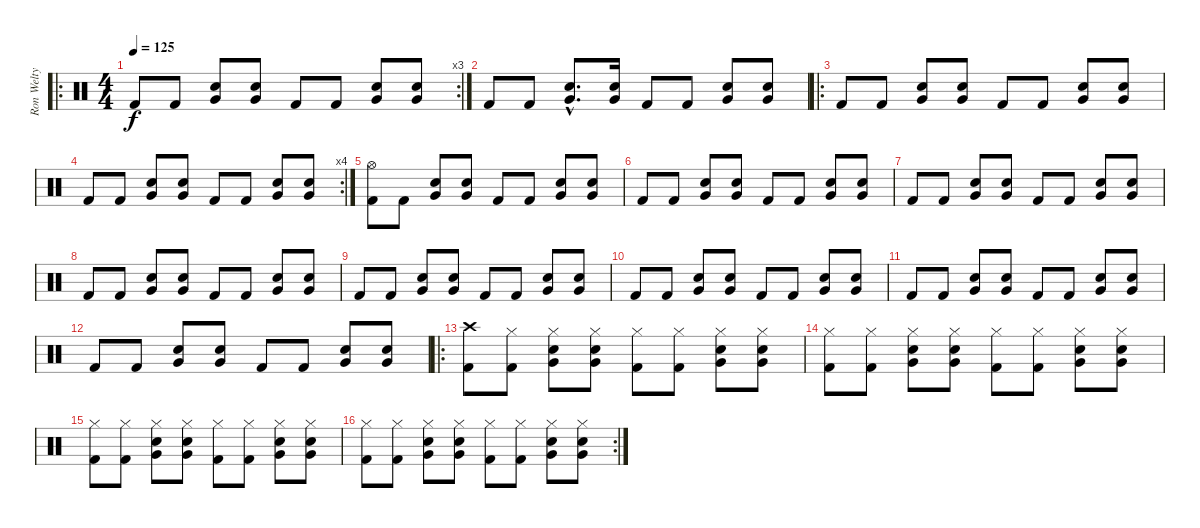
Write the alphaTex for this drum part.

\track ("Ron Welty" "Ron Welty") {instrument percussion}
\staff {score}
\articulation defaults
\ro
\rc 3
\ts (4 4)
\tempo 125
\clef neutral
\ks c "Kick (hit) 2".8{dy f} "Kick (hit) 2".8
("Snare (hit) 2" "Very Low Tom (hit)").8 ("Snare (hit) 2" "Very Low Tom (hit)").8 "Kick (hit) 2".8 "Kick (hit) 2".8 ("Snare (hit) 2" "Very Low Tom (hit)").8 ("Snare (hit) 2" "Very Low Tom (hit)").8 |
"Kick (hit) 2".8 "Kick (hit) 2".8 ("Snare (hit) 2"{hac} "Very Low Tom (hit)"{hac}).8{d} ("Snare (hit) 2" "Very Low Tom (hit)").16 "Kick (hit) 2".8 "Kick (hit) 2".8 ("Snare (hit) 2" "Very Low Tom (hit)").8 ("Snare (hit) 2" "Very Low Tom (hit)").8 |
\ro "Kick (hit) 2".8 "Kick (hit) 2".8
("Snare (hit) 2" "Very Low Tom (hit)").8 ("Snare (hit) 2" "Very Low Tom (hit)").8 "Kick (hit) 2".8 "Kick (hit) 2".8 ("Snare (hit) 2" "Very Low Tom (hit)").8 ("Snare (hit) 2" "Very Low Tom (hit)").8 |
\rc 4 "Kick (hit) 2".8 "Kick (hit) 2".8
("Snare (hit) 2" "Very Low Tom (hit)").8 ("Snare (hit) 2" "Very Low Tom (hit)").8 "Kick (hit) 2".8 "Kick (hit) 2".8 ("Snare (hit) 2" "Very Low Tom (hit)").8 ("Snare (hit) 2" "Very Low Tom (hit)").8 |
("Kick (hit) 2" "Hi-Hat (open)").8 "Kick (hit) 2".8 ("Snare (hit) 2" "Very Low Tom (hit)").8 ("Snare (hit) 2" "Very Low Tom (hit)").8 "Kick (hit) 2".8 "Kick (hit) 2".8 ("Snare (hit) 2" "Very Low Tom (hit)").8 ("Snare (hit) 2" "Very Low Tom (hit)").8 |
"Kick (hit) 2".8 "Kick (hit) 2".8 ("Snare (hit) 2" "Very Low Tom (hit)").8 ("Snare (hit) 2" "Very Low Tom (hit)").8 "Kick (hit) 2".8 "Kick (hit) 2".8 ("Snare (hit) 2" "Very Low Tom (hit)").8 ("Snare (hit) 2" "Very Low Tom (hit)").8 |
"Kick (hit) 2".8 "Kick (hit) 2".8 ("Snare (hit) 2" "Very Low Tom (hit)").8 ("Snare (hit) 2" "Very Low Tom (hit)").8 "Kick (hit) 2".8 "Kick (hit) 2".8 ("Snare (hit) 2" "Very Low Tom (hit)").8 ("Snare (hit) 2" "Very Low Tom (hit)").8 |
"Kick (hit) 2".8 "Kick (hit) 2".8 ("Snare (hit) 2" "Very Low Tom (hit)").8 ("Snare (hit) 2" "Very Low Tom (hit)").8 "Kick (hit) 2".8 "Kick (hit) 2".8 ("Snare (hit) 2" "Very Low Tom (hit)").8 ("Snare (hit) 2" "Very Low Tom (hit)").8 |
"Kick (hit) 2".8 "Kick (hit) 2".8 ("Snare (hit) 2" "Very Low Tom (hit)").8 ("Snare (hit) 2" "Very Low Tom (hit)").8 "Kick (hit) 2".8 "Kick (hit) 2".8 ("Snare (hit) 2" "Very Low Tom (hit)").8 ("Snare (hit) 2" "Very Low Tom (hit)").8 |
"Kick (hit) 2".8 "Kick (hit) 2".8 ("Snare (hit) 2" "Very Low Tom (hit)").8 ("Snare (hit) 2" "Very Low Tom (hit)").8 "Kick (hit) 2".8 "Kick (hit) 2".8 ("Snare (hit) 2" "Very Low Tom (hit)").8 ("Snare (hit) 2" "Very Low Tom (hit)").8 |
"Kick (hit) 2".8 "Kick (hit) 2".8 ("Snare (hit) 2" "Very Low Tom (hit)").8 ("Snare (hit) 2" "Very Low Tom (hit)").8 "Kick (hit) 2".8 "Kick (hit) 2".8 ("Snare (hit) 2" "Very Low Tom (hit)").8 ("Snare (hit) 2" "Very Low Tom (hit)").8 |
"Kick (hit) 2".8 "Kick (hit) 2".8 ("Snare (hit) 2" "Very Low Tom (hit)").8 ("Snare (hit) 2" "Very Low Tom (hit)").8 "Kick (hit) 2".8 "Kick (hit) 2".8 ("Snare (hit) 2" "Very Low Tom (hit)").8 ("Snare (hit) 2" "Very Low Tom (hit)").8 |
\ro
("Kick (hit) 2" "Crash high (hit)").8 ("Kick (hit) 2" "Hi-Hat (closed)").8 ("Snare (hit) 2" "Very Low Tom (hit)" "Hi-Hat (closed)").8 ("Snare (hit) 2" "Very Low Tom (hit)" "Hi-Hat (closed)").8 ("Kick (hit) 2" "Hi-Hat (closed)").8 ("Kick (hit) 2" "Hi-Hat (closed)").8 ("Snare (hit) 2" "Very Low Tom (hit)" "Hi-Hat (closed)").8 ("Snare (hit) 2" "Very Low Tom (hit)" "Hi-Hat (closed)").8 |
("Kick (hit) 2" "Hi-Hat (closed)").8 ("Kick (hit) 2" "Hi-Hat (closed)").8 ("Snare (hit) 2" "Very Low Tom (hit)" "Hi-Hat (closed)").8 ("Snare (hit) 2" "Very Low Tom (hit)" "Hi-Hat (closed)").8 ("Kick (hit) 2" "Hi-Hat (closed)").8 ("Kick (hit) 2" "Hi-Hat (closed)").8 ("Snare (hit) 2" "Very Low Tom (hit)" "Hi-Hat (closed)").8 ("Snare (hit) 2" "Very Low Tom (hit)" "Hi-Hat (closed)").8 |
("Kick (hit) 2" "Hi-Hat (closed)").8 ("Kick (hit) 2" "Hi-Hat (closed)").8 ("Snare (hit) 2" "Very Low Tom (hit)" "Hi-Hat (closed)").8 ("Snare (hit) 2" "Very Low Tom (hit)" "Hi-Hat (closed)").8 ("Kick (hit) 2" "Hi-Hat (closed)").8 ("Kick (hit) 2" "Hi-Hat (closed)").8 ("Snare (hit) 2" "Very Low Tom (hit)" "Hi-Hat (closed)").8 ("Snare (hit) 2" "Very Low Tom (hit)" "Hi-Hat (closed)").8 |
\rc 2
("Kick (hit) 2" "Hi-Hat (closed)").8 ("Kick (hit) 2" "Hi-Hat (closed)").8 ("Snare (hit) 2" "Very Low Tom (hit)" "Hi-Hat (closed)").8 ("Snare (hit) 2" "Very Low Tom (hit)" "Hi-Hat (closed)").8 ("Kick (hit) 2" "Hi-Hat (closed)").8 ("Kick (hit) 2" "Hi-Hat (closed)").8 ("Snare (hit) 2" "Very Low Tom (hit)" "Hi-Hat (closed)").8 ("Snare (hit) 2" "Very Low Tom (hit)" "Hi-Hat (closed)").8
